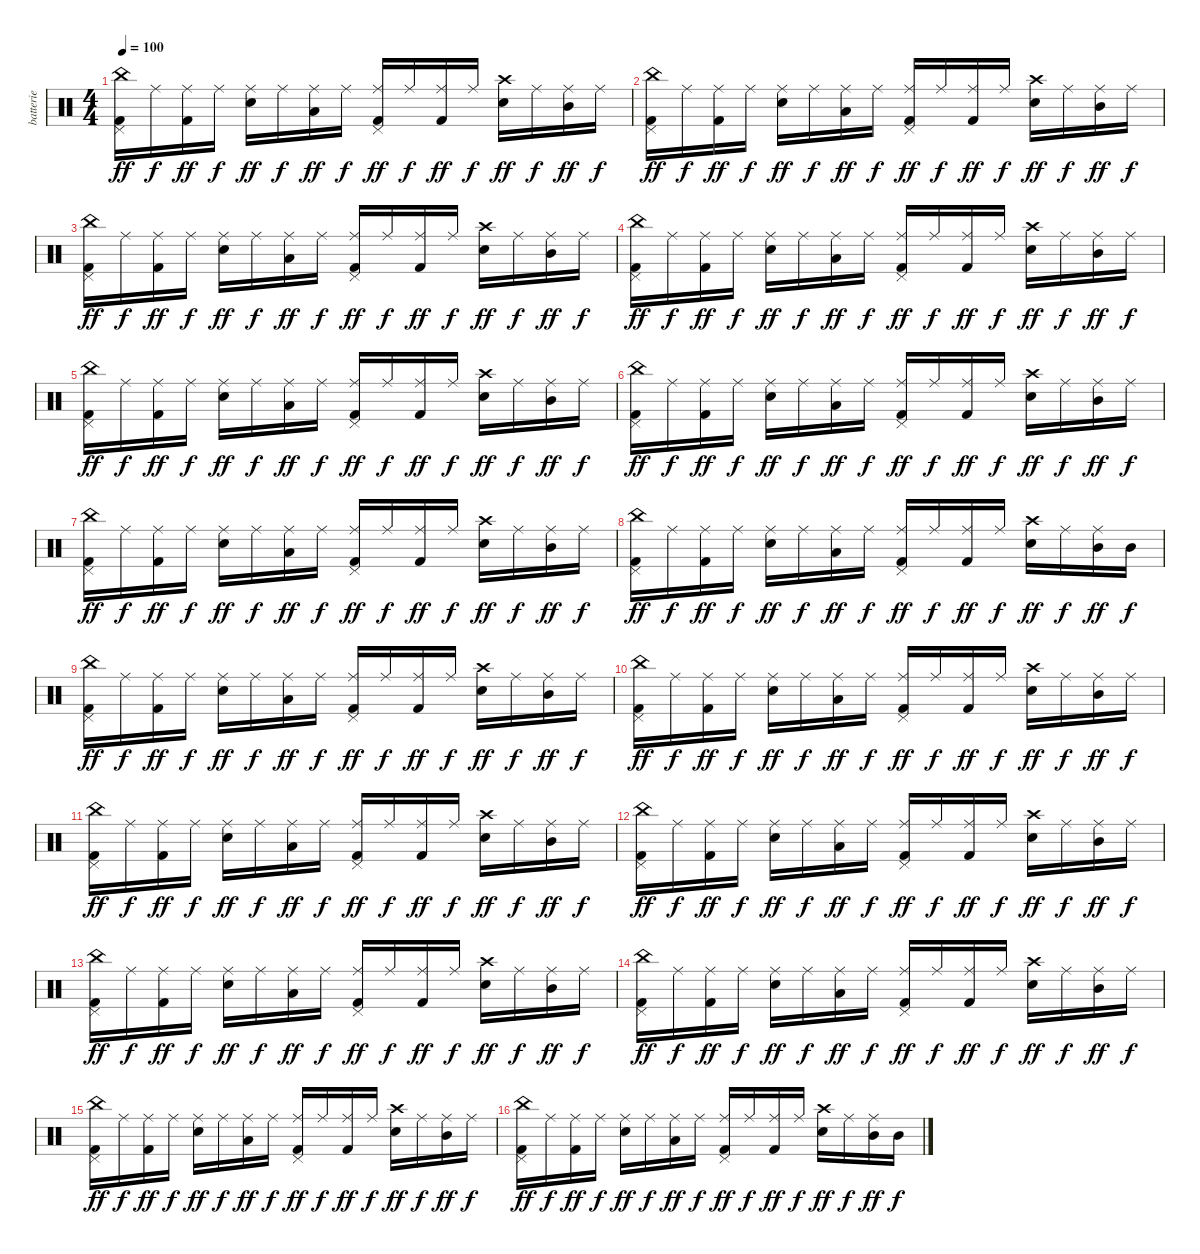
\track ("batterie" "batterie") {instrument percussion}
\staff {score}
\articulation defaults
\ts (4 4)
\tempo 100
\clef neutral
\ks c
("China (hit)" "Pedal Hi-Hat (hit)" "Kick (hit) 2").16{dy ff} "Ride (middle)".16{dy f} ("Ride (middle)" "Kick (hit) 2").16{dy ff} "Ride (middle)".16{dy f} ("Ride (middle)" "Snare (hit) 2").16{dy ff} "Ride (middle)".16{dy f} ("Ride (middle)" "Low Floor Tom (hit)").16{dy ff} "Ride (middle)".16{dy f} ("Ride (middle)" "Pedal Hi-Hat (hit)" "Kick (hit) 2").16{dy ff} "Ride (middle)".16{dy f} ("Ride (middle)" "Kick (hit) 2").16{dy ff} "Ride (middle)".16{dy f} ("Crash high (hit)" "Snare (hit) 2").16{dy ff} "Ride (middle)".16{dy f} ("Ride (middle)" "Mid Tom (hit)").16{dy ff} "Ride (middle)".16{dy f} |
("China (hit)" "Pedal Hi-Hat (hit)" "Kick (hit) 2").16{dy ff} "Ride (middle)".16{dy f} ("Ride (middle)" "Kick (hit) 2").16{dy ff} "Ride (middle)".16{dy f} ("Ride (middle)" "Snare (hit) 2").16{dy ff} "Ride (middle)".16{dy f} ("Ride (middle)" "Low Floor Tom (hit)").16{dy ff} "Ride (middle)".16{dy f} ("Ride (middle)" "Pedal Hi-Hat (hit)" "Kick (hit) 2").16{dy ff} "Ride (middle)".16{dy f} ("Ride (middle)" "Kick (hit) 2").16{dy ff} "Ride (middle)".16{dy f} ("Crash high (hit)" "Snare (hit) 2").16{dy ff} "Ride (middle)".16{dy f} ("Ride (middle)" "Mid Tom (hit)").16{dy ff} "Ride (middle)".16{dy f} |
("China (hit)" "Pedal Hi-Hat (hit)" "Kick (hit) 2").16{dy ff} "Ride (middle)".16{dy f} ("Ride (middle)" "Kick (hit) 2").16{dy ff} "Ride (middle)".16{dy f} ("Ride (middle)" "Snare (hit) 2").16{dy ff} "Ride (middle)".16{dy f} ("Ride (middle)" "Low Floor Tom (hit)").16{dy ff} "Ride (middle)".16{dy f} ("Ride (middle)" "Pedal Hi-Hat (hit)" "Kick (hit) 2").16{dy ff} "Ride (middle)".16{dy f} ("Ride (middle)" "Kick (hit) 2").16{dy ff} "Ride (middle)".16{dy f} ("Crash high (hit)" "Snare (hit) 2").16{dy ff} "Ride (middle)".16{dy f} ("Ride (middle)" "Mid Tom (hit)").16{dy ff} "Ride (middle)".16{dy f} |
("China (hit)" "Pedal Hi-Hat (hit)" "Kick (hit) 2").16{dy ff} "Ride (middle)".16{dy f} ("Ride (middle)" "Kick (hit) 2").16{dy ff} "Ride (middle)".16{dy f} ("Ride (middle)" "Snare (hit) 2").16{dy ff} "Ride (middle)".16{dy f} ("Ride (middle)" "Low Floor Tom (hit)").16{dy ff} "Ride (middle)".16{dy f} ("Ride (middle)" "Pedal Hi-Hat (hit)" "Kick (hit) 2").16{dy ff} "Ride (middle)".16{dy f} ("Ride (middle)" "Kick (hit) 2").16{dy ff} "Ride (middle)".16{dy f} ("Crash high (hit)" "Snare (hit) 2").16{dy ff} "Ride (middle)".16{dy f} ("Ride (middle)" "Mid Tom (hit)").16{dy ff} "Ride (middle)".16{dy f} |
("China (hit)" "Pedal Hi-Hat (hit)" "Kick (hit) 2").16{dy ff} "Ride (middle)".16{dy f} ("Ride (middle)" "Kick (hit) 2").16{dy ff} "Ride (middle)".16{dy f} ("Ride (middle)" "Snare (hit) 2").16{dy ff} "Ride (middle)".16{dy f} ("Ride (middle)" "Low Floor Tom (hit)").16{dy ff} "Ride (middle)".16{dy f} ("Ride (middle)" "Pedal Hi-Hat (hit)" "Kick (hit) 2").16{dy ff} "Ride (middle)".16{dy f} ("Ride (middle)" "Kick (hit) 2").16{dy ff} "Ride (middle)".16{dy f} ("Crash high (hit)" "Snare (hit) 2").16{dy ff} "Ride (middle)".16{dy f} ("Ride (middle)" "Mid Tom (hit)").16{dy ff} "Ride (middle)".16{dy f} |
("China (hit)" "Pedal Hi-Hat (hit)" "Kick (hit) 2").16{dy ff} "Ride (middle)".16{dy f} ("Ride (middle)" "Kick (hit) 2").16{dy ff} "Ride (middle)".16{dy f} ("Ride (middle)" "Snare (hit) 2").16{dy ff} "Ride (middle)".16{dy f} ("Ride (middle)" "Low Floor Tom (hit)").16{dy ff} "Ride (middle)".16{dy f} ("Ride (middle)" "Pedal Hi-Hat (hit)" "Kick (hit) 2").16{dy ff} "Ride (middle)".16{dy f} ("Ride (middle)" "Kick (hit) 2").16{dy ff} "Ride (middle)".16{dy f} ("Crash high (hit)" "Snare (hit) 2").16{dy ff} "Ride (middle)".16{dy f} ("Ride (middle)" "Mid Tom (hit)").16{dy ff} "Ride (middle)".16{dy f} |
("China (hit)" "Pedal Hi-Hat (hit)" "Kick (hit) 2").16{dy ff} "Ride (middle)".16{dy f} ("Ride (middle)" "Kick (hit) 2").16{dy ff} "Ride (middle)".16{dy f} ("Ride (middle)" "Snare (hit) 2").16{dy ff} "Ride (middle)".16{dy f} ("Ride (middle)" "Low Floor Tom (hit)").16{dy ff} "Ride (middle)".16{dy f} ("Ride (middle)" "Pedal Hi-Hat (hit)" "Kick (hit) 2").16{dy ff} "Ride (middle)".16{dy f} ("Ride (middle)" "Kick (hit) 2").16{dy ff} "Ride (middle)".16{dy f} ("Crash high (hit)" "Snare (hit) 2").16{dy ff} "Ride (middle)".16{dy f} ("Ride (middle)" "Mid Tom (hit)").16{dy ff} "Ride (middle)".16{dy f} |
("China (hit)" "Pedal Hi-Hat (hit)" "Kick (hit) 2").16{dy ff} "Ride (middle)".16{dy f} ("Ride (middle)" "Kick (hit) 2").16{dy ff} "Ride (middle)".16{dy f} ("Ride (middle)" "Snare (hit) 2").16{dy ff} "Ride (middle)".16{dy f} ("Ride (middle)" "Low Floor Tom (hit)").16{dy ff} "Ride (middle)".16{dy f} ("Ride (middle)" "Pedal Hi-Hat (hit)" "Kick (hit) 2").16{dy ff} "Ride (middle)".16{dy f} ("Ride (middle)" "Kick (hit) 2").16{dy ff} "Ride (middle)".16{dy f} ("Crash high (hit)" "Snare (hit) 2").16{dy ff} "Ride (middle)".16{dy f} ("Ride (middle)" "Mid Tom (hit)").16{dy ff} "Mid Tom (hit)".16{dy f} |
("China (hit)" "Pedal Hi-Hat (hit)" "Kick (hit) 2").16{dy ff} "Ride (middle)".16{dy f} ("Ride (middle)" "Kick (hit) 2").16{dy ff} "Ride (middle)".16{dy f} ("Ride (middle)" "Snare (hit) 2").16{dy ff} "Ride (middle)".16{dy f} ("Ride (middle)" "Low Floor Tom (hit)").16{dy ff} "Ride (middle)".16{dy f} ("Ride (middle)" "Pedal Hi-Hat (hit)" "Kick (hit) 2").16{dy ff} "Ride (middle)".16{dy f} ("Ride (middle)" "Kick (hit) 2").16{dy ff} "Ride (middle)".16{dy f} ("Crash high (hit)" "Snare (hit) 2").16{dy ff} "Ride (middle)".16{dy f} ("Ride (middle)" "Mid Tom (hit)").16{dy ff} "Ride (middle)".16{dy f} |
("China (hit)" "Pedal Hi-Hat (hit)" "Kick (hit) 2").16{dy ff} "Ride (middle)".16{dy f} ("Ride (middle)" "Kick (hit) 2").16{dy ff} "Ride (middle)".16{dy f} ("Ride (middle)" "Snare (hit) 2").16{dy ff} "Ride (middle)".16{dy f} ("Ride (middle)" "Low Floor Tom (hit)").16{dy ff} "Ride (middle)".16{dy f} ("Ride (middle)" "Pedal Hi-Hat (hit)" "Kick (hit) 2").16{dy ff} "Ride (middle)".16{dy f} ("Ride (middle)" "Kick (hit) 2").16{dy ff} "Ride (middle)".16{dy f} ("Crash high (hit)" "Snare (hit) 2").16{dy ff} "Ride (middle)".16{dy f} ("Ride (middle)" "Mid Tom (hit)").16{dy ff} "Ride (middle)".16{dy f} |
("China (hit)" "Pedal Hi-Hat (hit)" "Kick (hit) 2").16{dy ff} "Ride (middle)".16{dy f} ("Ride (middle)" "Kick (hit) 2").16{dy ff} "Ride (middle)".16{dy f} ("Ride (middle)" "Snare (hit) 2").16{dy ff} "Ride (middle)".16{dy f} ("Ride (middle)" "Low Floor Tom (hit)").16{dy ff} "Ride (middle)".16{dy f} ("Ride (middle)" "Pedal Hi-Hat (hit)" "Kick (hit) 2").16{dy ff} "Ride (middle)".16{dy f} ("Ride (middle)" "Kick (hit) 2").16{dy ff} "Ride (middle)".16{dy f} ("Crash high (hit)" "Snare (hit) 2").16{dy ff} "Ride (middle)".16{dy f} ("Ride (middle)" "Mid Tom (hit)").16{dy ff} "Ride (middle)".16{dy f} |
("China (hit)" "Pedal Hi-Hat (hit)" "Kick (hit) 2").16{dy ff} "Ride (middle)".16{dy f} ("Ride (middle)" "Kick (hit) 2").16{dy ff} "Ride (middle)".16{dy f} ("Ride (middle)" "Snare (hit) 2").16{dy ff} "Ride (middle)".16{dy f} ("Ride (middle)" "Low Floor Tom (hit)").16{dy ff} "Ride (middle)".16{dy f} ("Ride (middle)" "Pedal Hi-Hat (hit)" "Kick (hit) 2").16{dy ff} "Ride (middle)".16{dy f} ("Ride (middle)" "Kick (hit) 2").16{dy ff} "Ride (middle)".16{dy f} ("Crash high (hit)" "Snare (hit) 2").16{dy ff} "Ride (middle)".16{dy f} ("Ride (middle)" "Mid Tom (hit)").16{dy ff} "Ride (middle)".16{dy f} |
("China (hit)" "Pedal Hi-Hat (hit)" "Kick (hit) 2").16{dy ff} "Ride (middle)".16{dy f} ("Ride (middle)" "Kick (hit) 2").16{dy ff} "Ride (middle)".16{dy f} ("Ride (middle)" "Snare (hit) 2").16{dy ff} "Ride (middle)".16{dy f} ("Ride (middle)" "Low Floor Tom (hit)").16{dy ff} "Ride (middle)".16{dy f} ("Ride (middle)" "Pedal Hi-Hat (hit)" "Kick (hit) 2").16{dy ff} "Ride (middle)".16{dy f} ("Ride (middle)" "Kick (hit) 2").16{dy ff} "Ride (middle)".16{dy f} ("Crash high (hit)" "Snare (hit) 2").16{dy ff} "Ride (middle)".16{dy f} ("Ride (middle)" "Mid Tom (hit)").16{dy ff} "Ride (middle)".16{dy f} |
("China (hit)" "Pedal Hi-Hat (hit)" "Kick (hit) 2").16{dy ff} "Ride (middle)".16{dy f} ("Ride (middle)" "Kick (hit) 2").16{dy ff} "Ride (middle)".16{dy f} ("Ride (middle)" "Snare (hit) 2").16{dy ff} "Ride (middle)".16{dy f} ("Ride (middle)" "Low Floor Tom (hit)").16{dy ff} "Ride (middle)".16{dy f} ("Ride (middle)" "Pedal Hi-Hat (hit)" "Kick (hit) 2").16{dy ff} "Ride (middle)".16{dy f} ("Ride (middle)" "Kick (hit) 2").16{dy ff} "Ride (middle)".16{dy f} ("Crash high (hit)" "Snare (hit) 2").16{dy ff} "Ride (middle)".16{dy f} ("Ride (middle)" "Mid Tom (hit)").16{dy ff} "Ride (middle)".16{dy f} |
("China (hit)" "Pedal Hi-Hat (hit)" "Kick (hit) 2").16{dy ff} "Ride (middle)".16{dy f} ("Ride (middle)" "Kick (hit) 2").16{dy ff} "Ride (middle)".16{dy f} ("Ride (middle)" "Snare (hit) 2").16{dy ff} "Ride (middle)".16{dy f} ("Ride (middle)" "Low Floor Tom (hit)").16{dy ff} "Ride (middle)".16{dy f} ("Ride (middle)" "Pedal Hi-Hat (hit)" "Kick (hit) 2").16{dy ff} "Ride (middle)".16{dy f} ("Ride (middle)" "Kick (hit) 2").16{dy ff} "Ride (middle)".16{dy f} ("Crash high (hit)" "Snare (hit) 2").16{dy ff} "Ride (middle)".16{dy f} ("Ride (middle)" "Mid Tom (hit)").16{dy ff} "Ride (middle)".16{dy f} |
("China (hit)" "Pedal Hi-Hat (hit)" "Kick (hit) 2").16{dy ff} "Ride (middle)".16{dy f} ("Ride (middle)" "Kick (hit) 2").16{dy ff} "Ride (middle)".16{dy f} ("Ride (middle)" "Snare (hit) 2").16{dy ff} "Ride (middle)".16{dy f} ("Ride (middle)" "Low Floor Tom (hit)").16{dy ff} "Ride (middle)".16{dy f} ("Ride (middle)" "Pedal Hi-Hat (hit)" "Kick (hit) 2").16{dy ff} "Ride (middle)".16{dy f} ("Ride (middle)" "Kick (hit) 2").16{dy ff} "Ride (middle)".16{dy f} ("Crash high (hit)" "Snare (hit) 2").16{dy ff} "Ride (middle)".16{dy f} ("Ride (middle)" "Mid Tom (hit)").16{dy ff} "Mid Tom (hit)".16{dy f}
